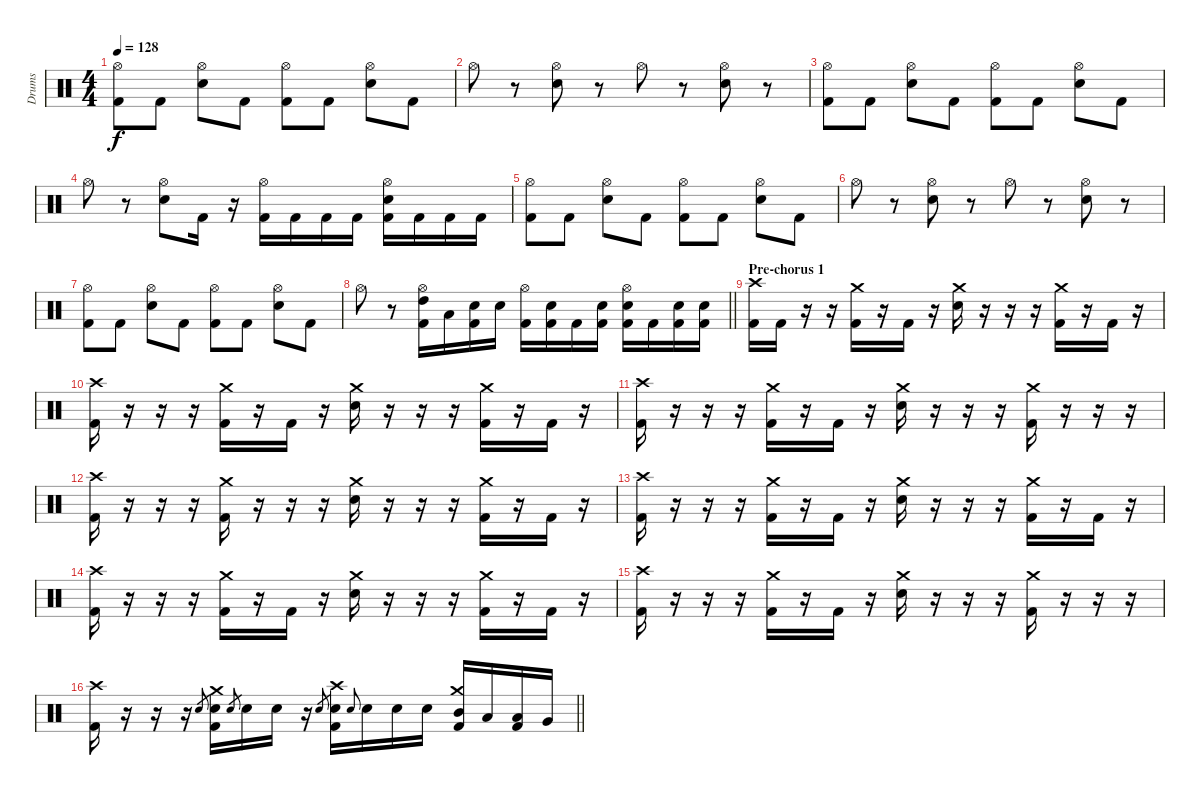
\track ("Drums" "Drums") {instrument percussion}
\staff {score}
\articulation defaults
\ts (4 4)
\tempo 128
\clef neutral
\ks c
("Hi-Hat (open)" "Kick (hit) 2").8{dy f} "Kick (hit) 2".8 ("Hi-Hat (open)" "Electric Snare (hit)").8 "Kick (hit) 2".8 ("Hi-Hat (open)" "Kick (hit) 2").8 "Kick (hit) 2".8 ("Hi-Hat (open)" "Electric Snare (hit)").8 "Kick (hit) 2".8 |
"Hi-Hat (open)".8 r.8 ("Hi-Hat (open)" "Electric Snare (hit)").8 r.8 "Hi-Hat (open)".8 r.8 ("Hi-Hat (open)" "Electric Snare (hit)").8 r.8 |
("Hi-Hat (open)" "Kick (hit) 2").8 "Kick (hit) 2".8 ("Hi-Hat (open)" "Electric Snare (hit)").8 "Kick (hit) 2".8 ("Hi-Hat (open)" "Kick (hit) 2").8 "Kick (hit) 2".8 ("Hi-Hat (open)" "Electric Snare (hit)").8 "Kick (hit) 2".8 |
"Hi-Hat (open)".8 r.8 ("Hi-Hat (open)" "Electric Snare (hit)").8 "Kick (hit) 2".16 r.16 ("Hi-Hat (open)" "Kick (hit) 2").16 "Kick (hit) 2".16 "Kick (hit) 2".16 "Kick (hit) 2".16 ("Hi-Hat (open)" "Electric Snare (hit)" "Kick (hit) 2").16 "Kick (hit) 2".16 "Kick (hit) 2".16 "Kick (hit) 2".16 |
("Hi-Hat (open)" "Kick (hit) 2").8 "Kick (hit) 2".8 ("Hi-Hat (open)" "Electric Snare (hit)").8 "Kick (hit) 2".8 ("Hi-Hat (open)" "Kick (hit) 2").8 "Kick (hit) 2".8 ("Hi-Hat (open)" "Electric Snare (hit)").8 "Kick (hit) 2".8 |
"Hi-Hat (open)".8 r.8 ("Hi-Hat (open)" "Electric Snare (hit)").8 r.8 "Hi-Hat (open)".8 r.8 ("Hi-Hat (open)" "Electric Snare (hit)").8 r.8 |
("Hi-Hat (open)" "Kick (hit) 2").8 "Kick (hit) 2".8 ("Hi-Hat (open)" "Electric Snare (hit)").8 "Kick (hit) 2".8 ("Hi-Hat (open)" "Kick (hit) 2").8 "Kick (hit) 2".8 ("Hi-Hat (open)" "Electric Snare (hit)").8 "Kick (hit) 2".8 |
\barLineRight lightlight "Hi-Hat (open)".8
r.8 ("Hi-Hat (open)" "High Tom (hit)" "Kick (hit) 2").16 "Low Tom (hit)".16 ("Electric Snare (hit)" "Kick (hit) 2").16 "Electric Snare (hit)".16 ("Hi-Hat (open)" "Kick (hit) 2").16 ("Electric Snare (hit)" "Kick (hit) 2").16 "Kick (hit) 2".16 ("Electric Snare (hit)" "Kick (hit) 2").16 ("Hi-Hat (open)" "Electric Snare (hit)" "Kick (hit) 2").16 "Kick (hit) 2".16 ("Electric Snare (hit)" "Kick (hit) 2").16 ("Electric Snare (hit)" "Kick (hit) 2").16 |
\section ("" "Pre-chorus 1")
("Crash high (hit)" "Kick (hit) 2").16 "Kick (hit) 2".16 r.16 r.16 ("Crash medium (hit)" "Kick (hit) 2").16 r.16 "Kick (hit) 2".16 r.16 ("Crash medium (hit)" "Electric Snare (hit)").16 r.16 r.16 r.16 ("Crash medium (hit)" "Kick (hit) 2").16 r.16 "Kick (hit) 2".16 r.16 |
("Crash high (hit)" "Kick (hit) 2").16 r.16 r.16 r.16 ("Crash medium (hit)" "Kick (hit) 2").16 r.16 "Kick (hit) 2".16 r.16 ("Crash medium (hit)" "Electric Snare (hit)").16 r.16 r.16 r.16 ("Crash medium (hit)" "Kick (hit) 2").16 r.16 "Kick (hit) 2".16 r.16 |
("Crash high (hit)" "Kick (hit) 2").16 r.16 r.16 r.16 ("Crash medium (hit)" "Kick (hit) 2").16 r.16 "Kick (hit) 2".16 r.16 ("Crash medium (hit)" "Electric Snare (hit)").16 r.16 r.16 r.16 ("Crash medium (hit)" "Kick (hit) 2").16 r.16 r.16 r.16 |
("Crash high (hit)" "Kick (hit) 2").16 r.16 r.16 r.16 ("Crash medium (hit)" "Kick (hit) 2").16 r.16 r.16 r.16 ("Crash medium (hit)" "Electric Snare (hit)").16 r.16 r.16 r.16 ("Crash medium (hit)" "Kick (hit) 2").16 r.16 "Kick (hit) 2".16 r.16 |
("Crash high (hit)" "Kick (hit) 2").16 r.16 r.16 r.16 ("Crash medium (hit)" "Kick (hit) 2").16 r.16 "Kick (hit) 2".16 r.16 ("Crash medium (hit)" "Electric Snare (hit)").16 r.16 r.16 r.16 ("Crash medium (hit)" "Kick (hit) 2").16 r.16 "Kick (hit) 2".16 r.16 |
("Crash high (hit)" "Kick (hit) 2").16 r.16 r.16 r.16 ("Crash medium (hit)" "Kick (hit) 2").16 r.16 "Kick (hit) 2".16 r.16 ("Crash medium (hit)" "Electric Snare (hit)").16 r.16 r.16 r.16 ("Crash medium (hit)" "Kick (hit) 2").16 r.16 "Kick (hit) 2".16 r.16 |
("Crash high (hit)" "Kick (hit) 2").16 r.16 r.16 r.16 ("Crash medium (hit)" "Kick (hit) 2").16 r.16 "Kick (hit) 2".16 r.16 ("Crash medium (hit)" "Electric Snare (hit)").16 r.16 r.16 r.16 ("Crash medium (hit)" "Kick (hit) 2").16 r.16 r.16 r.16 |
\barLineRight lightlight
("Crash high (hit)" "Kick (hit) 2").16 r.16 r.16 r.16 "Electric Snare (hit)".8{gr} ("Crash medium (hit)" "Electric Snare (hit)" "Kick (hit) 2").16 "Electric Snare (hit)".8{gr} "Electric Snare (hit)".16 "Electric Snare (hit)".16 r.16 "Electric Snare (hit)".8{gr} ("Crash high (hit)" "Electric Snare (hit)" "Kick (hit) 2").16 "Electric Snare (hit)".8{gr onbeat} "Electric Snare (hit)".16 "Electric Snare (hit)".16 "Electric Snare (hit)".16 ("Crash medium (hit)" "Mid Tom (hit)" "Kick (hit) 2").16 "Low Tom (hit)".16 ("Low Tom (hit)" "Kick (hit) 2").16 "Very Low Tom (hit)".16
